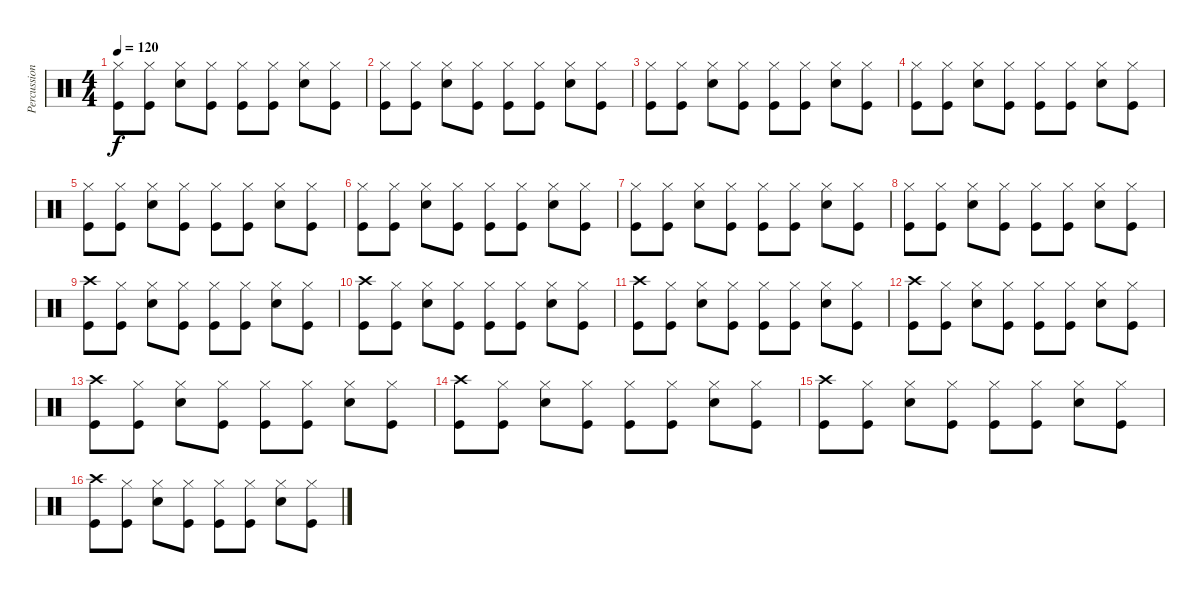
\track ("Percussion" "Percussion") {instrument percussion}
\staff {score}
\articulation defaults
\ts (4 4)
\tempo 120
\clef neutral
\ks c
("Hi-Hat (closed)" "Kick (hit)").8{dy f} ("Hi-Hat (closed)" "Kick (hit)").8 ("Hi-Hat (closed)" "Snare (hit) 2").8 ("Hi-Hat (closed)" "Kick (hit)").8 ("Hi-Hat (closed)" "Kick (hit)").8 ("Hi-Hat (closed)" "Kick (hit)").8 ("Hi-Hat (closed)" "Snare (hit) 2").8 ("Hi-Hat (closed)" "Kick (hit)").8 |
("Hi-Hat (closed)" "Kick (hit)").8 ("Hi-Hat (closed)" "Kick (hit)").8 ("Hi-Hat (closed)" "Snare (hit) 2").8 ("Hi-Hat (closed)" "Kick (hit)").8 ("Hi-Hat (closed)" "Kick (hit)").8 ("Hi-Hat (closed)" "Kick (hit)").8 ("Hi-Hat (closed)" "Snare (hit) 2").8 ("Hi-Hat (closed)" "Kick (hit)").8 |
("Hi-Hat (closed)" "Kick (hit)").8 ("Hi-Hat (closed)" "Kick (hit)").8 ("Hi-Hat (closed)" "Snare (hit) 2").8 ("Hi-Hat (closed)" "Kick (hit)").8 ("Hi-Hat (closed)" "Kick (hit)").8 ("Hi-Hat (closed)" "Kick (hit)").8 ("Hi-Hat (closed)" "Snare (hit) 2").8 ("Hi-Hat (closed)" "Kick (hit)").8 |
("Hi-Hat (closed)" "Kick (hit)").8 ("Hi-Hat (closed)" "Kick (hit)").8 ("Hi-Hat (closed)" "Snare (hit) 2").8 ("Hi-Hat (closed)" "Kick (hit)").8 ("Hi-Hat (closed)" "Kick (hit)").8 ("Hi-Hat (closed)" "Kick (hit)").8 ("Hi-Hat (closed)" "Snare (hit) 2").8 ("Hi-Hat (closed)" "Kick (hit)").8 |
("Hi-Hat (closed)" "Kick (hit)").8 ("Hi-Hat (closed)" "Kick (hit)").8 ("Hi-Hat (closed)" "Snare (hit) 2").8 ("Hi-Hat (closed)" "Kick (hit)").8 ("Hi-Hat (closed)" "Kick (hit)").8 ("Hi-Hat (closed)" "Kick (hit)").8 ("Hi-Hat (closed)" "Snare (hit) 2").8 ("Hi-Hat (closed)" "Kick (hit)").8 |
("Hi-Hat (closed)" "Kick (hit)").8 ("Hi-Hat (closed)" "Kick (hit)").8 ("Hi-Hat (closed)" "Snare (hit) 2").8 ("Hi-Hat (closed)" "Kick (hit)").8 ("Hi-Hat (closed)" "Kick (hit)").8 ("Hi-Hat (closed)" "Kick (hit)").8 ("Hi-Hat (closed)" "Snare (hit) 2").8 ("Hi-Hat (closed)" "Kick (hit)").8 |
("Hi-Hat (closed)" "Kick (hit)").8 ("Hi-Hat (closed)" "Kick (hit)").8 ("Hi-Hat (closed)" "Snare (hit) 2").8 ("Hi-Hat (closed)" "Kick (hit)").8 ("Hi-Hat (closed)" "Kick (hit)").8 ("Hi-Hat (closed)" "Kick (hit)").8 ("Hi-Hat (closed)" "Snare (hit) 2").8 ("Hi-Hat (closed)" "Kick (hit)").8 |
("Hi-Hat (closed)" "Kick (hit)").8 ("Hi-Hat (closed)" "Kick (hit)").8 ("Hi-Hat (closed)" "Snare (hit) 2").8 ("Hi-Hat (closed)" "Kick (hit)").8 ("Hi-Hat (closed)" "Kick (hit)").8 ("Hi-Hat (closed)" "Kick (hit)").8 ("Hi-Hat (closed)" "Snare (hit) 2").8 ("Hi-Hat (closed)" "Kick (hit)").8 |
("Crash high (hit)" "Kick (hit)").8 ("Hi-Hat (closed)" "Kick (hit)").8 ("Hi-Hat (closed)" "Snare (hit) 2").8 ("Hi-Hat (closed)" "Kick (hit)").8 ("Hi-Hat (closed)" "Kick (hit)").8 ("Hi-Hat (closed)" "Kick (hit)").8 ("Hi-Hat (closed)" "Snare (hit) 2").8 ("Hi-Hat (closed)" "Kick (hit)").8 |
("Crash high (hit)" "Kick (hit)").8 ("Hi-Hat (closed)" "Kick (hit)").8 ("Hi-Hat (closed)" "Snare (hit) 2").8 ("Hi-Hat (closed)" "Kick (hit)").8 ("Hi-Hat (closed)" "Kick (hit)").8 ("Hi-Hat (closed)" "Kick (hit)").8 ("Hi-Hat (closed)" "Snare (hit) 2").8 ("Hi-Hat (closed)" "Kick (hit)").8 |
("Crash high (hit)" "Kick (hit)").8 ("Hi-Hat (closed)" "Kick (hit)").8 ("Hi-Hat (closed)" "Snare (hit) 2").8 ("Hi-Hat (closed)" "Kick (hit)").8 ("Hi-Hat (closed)" "Kick (hit)").8 ("Hi-Hat (closed)" "Kick (hit)").8 ("Hi-Hat (closed)" "Snare (hit) 2").8 ("Hi-Hat (closed)" "Kick (hit)").8 |
("Crash high (hit)" "Kick (hit)").8 ("Hi-Hat (closed)" "Kick (hit)").8 ("Hi-Hat (closed)" "Snare (hit) 2").8 ("Hi-Hat (closed)" "Kick (hit)").8 ("Hi-Hat (closed)" "Kick (hit)").8 ("Hi-Hat (closed)" "Kick (hit)").8 ("Hi-Hat (closed)" "Snare (hit) 2").8 ("Hi-Hat (closed)" "Kick (hit)").8 |
("Crash high (hit)" "Kick (hit)").8 ("Hi-Hat (closed)" "Kick (hit)").8 ("Hi-Hat (closed)" "Snare (hit) 2").8 ("Hi-Hat (closed)" "Kick (hit)").8 ("Hi-Hat (closed)" "Kick (hit)").8 ("Hi-Hat (closed)" "Kick (hit)").8 ("Hi-Hat (closed)" "Snare (hit) 2").8 ("Hi-Hat (closed)" "Kick (hit)").8 |
("Crash high (hit)" "Kick (hit)").8 ("Hi-Hat (closed)" "Kick (hit)").8 ("Hi-Hat (closed)" "Snare (hit) 2").8 ("Hi-Hat (closed)" "Kick (hit)").8 ("Hi-Hat (closed)" "Kick (hit)").8 ("Hi-Hat (closed)" "Kick (hit)").8 ("Hi-Hat (closed)" "Snare (hit) 2").8 ("Hi-Hat (closed)" "Kick (hit)").8 |
("Crash high (hit)" "Kick (hit)").8 ("Hi-Hat (closed)" "Kick (hit)").8 ("Hi-Hat (closed)" "Snare (hit) 2").8 ("Hi-Hat (closed)" "Kick (hit)").8 ("Hi-Hat (closed)" "Kick (hit)").8 ("Hi-Hat (closed)" "Kick (hit)").8 ("Hi-Hat (closed)" "Snare (hit) 2").8 ("Hi-Hat (closed)" "Kick (hit)").8 |
("Crash high (hit)" "Kick (hit)").8 ("Hi-Hat (closed)" "Kick (hit)").8 ("Hi-Hat (closed)" "Snare (hit) 2").8 ("Hi-Hat (closed)" "Kick (hit)").8 ("Hi-Hat (closed)" "Kick (hit)").8 ("Hi-Hat (closed)" "Kick (hit)").8 ("Hi-Hat (closed)" "Snare (hit) 2").8 ("Hi-Hat (closed)" "Kick (hit)").8
